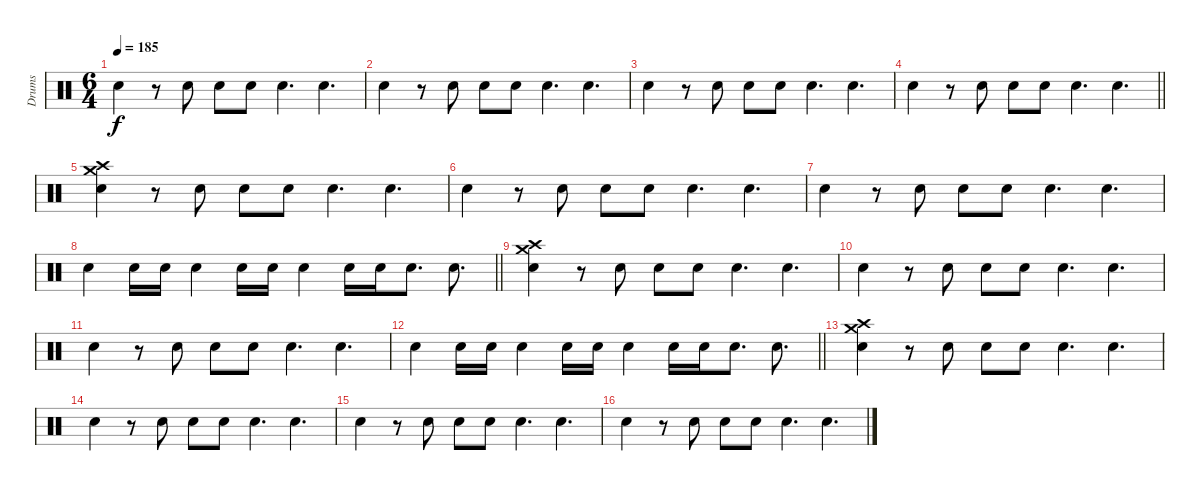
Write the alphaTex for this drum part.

\track ("Drums" "Drums") {instrument percussion}
\staff {score}
\articulation defaults
\ts (6 4)
\section ("" "")
\tempo 185
\clef neutral
\ks c "Snare (hit) 2".4{dy f}
r.8 "Snare (hit) 2".8 "Snare (hit) 2".8 "Snare (hit) 2".8 "Snare (hit) 2".4{d} "Snare (hit) 2".4{d} |
"Snare (hit) 2".4 r.8 "Snare (hit) 2".8 "Snare (hit) 2".8 "Snare (hit) 2".8 "Snare (hit) 2".4{d} "Snare (hit) 2".4{d} |
"Snare (hit) 2".4 r.8 "Snare (hit) 2".8 "Snare (hit) 2".8 "Snare (hit) 2".8 "Snare (hit) 2".4{d} "Snare (hit) 2".4{d} |
\barLineRight lightlight "Snare (hit) 2".4
r.8 "Snare (hit) 2".8 "Snare (hit) 2".8 "Snare (hit) 2".8 "Snare (hit) 2".4{d} "Snare (hit) 2".4{d} |
\section ("" "")
("Crash medium (hit)" "Crash high (hit)" "Snare (hit) 2").4 r.8 "Snare (hit) 2".8 "Snare (hit) 2".8 "Snare (hit) 2".8 "Snare (hit) 2".4{d} "Snare (hit) 2".4{d} |
"Snare (hit) 2".4 r.8 "Snare (hit) 2".8 "Snare (hit) 2".8 "Snare (hit) 2".8 "Snare (hit) 2".4{d} "Snare (hit) 2".4{d} |
"Snare (hit) 2".4 r.8 "Snare (hit) 2".8 "Snare (hit) 2".8 "Snare (hit) 2".8 "Snare (hit) 2".4{d} "Snare (hit) 2".4{d} |
\barLineRight lightlight "Snare (hit) 2".4 "Snare (hit) 2".16 "Snare (hit) 2".16 "Snare (hit) 2".4 "Snare (hit) 2".16 "Snare (hit) 2".16 "Snare (hit) 2".4 "Snare (hit) 2".16 "Snare (hit) 2".16 "Snare (hit) 2".8{d} "Snare (hit) 2".8{d}
|
\section ("" "")
("Crash medium (hit)" "Crash high (hit)" "Snare (hit) 2").4 r.8 "Snare (hit) 2".8 "Snare (hit) 2".8 "Snare (hit) 2".8 "Snare (hit) 2".4{d} "Snare (hit) 2".4{d} |
"Snare (hit) 2".4 r.8 "Snare (hit) 2".8 "Snare (hit) 2".8 "Snare (hit) 2".8 "Snare (hit) 2".4{d} "Snare (hit) 2".4{d} |
"Snare (hit) 2".4 r.8 "Snare (hit) 2".8 "Snare (hit) 2".8 "Snare (hit) 2".8 "Snare (hit) 2".4{d} "Snare (hit) 2".4{d} |
\barLineRight lightlight "Snare (hit) 2".4 "Snare (hit) 2".16 "Snare (hit) 2".16 "Snare (hit) 2".4 "Snare (hit) 2".16 "Snare (hit) 2".16 "Snare (hit) 2".4 "Snare (hit) 2".16 "Snare (hit) 2".16 "Snare (hit) 2".8{d} "Snare (hit) 2".8{d}
|
\section ("" "")
("Crash medium (hit)" "Crash high (hit)" "Snare (hit) 2").4 r.8 "Snare (hit) 2".8 "Snare (hit) 2".8 "Snare (hit) 2".8 "Snare (hit) 2".4{d} "Snare (hit) 2".4{d} |
"Snare (hit) 2".4 r.8 "Snare (hit) 2".8 "Snare (hit) 2".8 "Snare (hit) 2".8 "Snare (hit) 2".4{d} "Snare (hit) 2".4{d} |
"Snare (hit) 2".4 r.8 "Snare (hit) 2".8 "Snare (hit) 2".8 "Snare (hit) 2".8 "Snare (hit) 2".4{d} "Snare (hit) 2".4{d} |
"Snare (hit) 2".4 r.8 "Snare (hit) 2".8 "Snare (hit) 2".8 "Snare (hit) 2".8 "Snare (hit) 2".4{d} "Snare (hit) 2".4{d}
